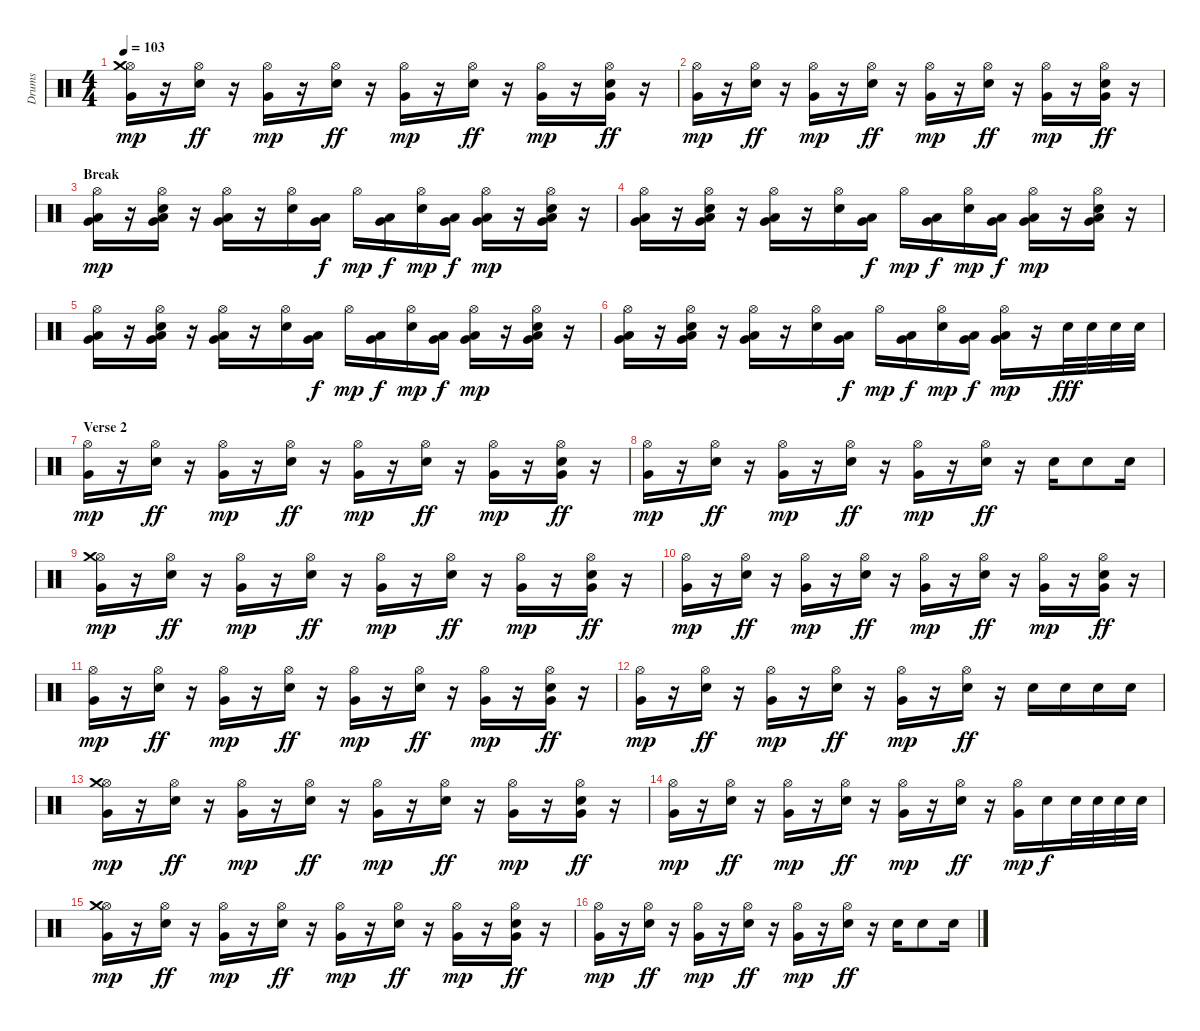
\track ("Drums" "Drums") {instrument percussion}
\staff {score}
\articulation defaults
\ts (4 4)
\tempo 103
\clef neutral
\ks c
("Hi-Hat (open)" "Crash medium (hit)" "Very Low Tom (hit)").16{dy mp} r.16 ("Hi-Hat (open)" "Electric Snare (hit)").16{dy ff} r.16 ("Hi-Hat (open)" "Very Low Tom (hit)").16{dy mp} r.16 ("Hi-Hat (open)" "Electric Snare (hit)").16{dy ff} r.16 ("Hi-Hat (open)" "Very Low Tom (hit)").16{dy mp} r.16 ("Hi-Hat (open)" "Electric Snare (hit)").16{dy ff} r.16 ("Hi-Hat (open)" "Very Low Tom (hit)").16{dy mp} r.16 ("Hi-Hat (open)" "Electric Snare (hit)" "Very Low Tom (hit)").16{dy ff} r.16 |
("Hi-Hat (open)" "Very Low Tom (hit)").16{dy mp} r.16 ("Hi-Hat (open)" "Electric Snare (hit)").16{dy ff} r.16 ("Hi-Hat (open)" "Very Low Tom (hit)").16{dy mp} r.16 ("Hi-Hat (open)" "Electric Snare (hit)").16{dy ff} r.16 ("Hi-Hat (open)" "Very Low Tom (hit)").16{dy mp} r.16 ("Hi-Hat (open)" "Electric Snare (hit)").16{dy ff} r.16 ("Hi-Hat (open)" "Very Low Tom (hit)").16{dy mp} r.16 ("Hi-Hat (open)" "Electric Snare (hit)" "Very Low Tom (hit)").16{dy ff} r.16 |
\section ("" "Break ")
("Hi-Hat (open)" "Low Floor Tom (hit)" "Very Low Tom (hit)").16{dy mp} r.16 ("Hi-Hat (open)" "Electric Snare (hit)" "Low Floor Tom (hit)" "Very Low Tom (hit)").16 r.16 ("Hi-Hat (open)" "Low Floor Tom (hit)" "Very Low Tom (hit)").16 r.16 ("Hi-Hat (open)" "Electric Snare (hit)").16 ("Low Floor Tom (hit)" "Very Low Tom (hit)").16{dy f} "Hi-Hat (open)".16{dy mp} ("Low Floor Tom (hit)" "Very Low Tom (hit)").16{dy f} ("Hi-Hat (open)" "Electric Snare (hit)").16{dy mp} ("Low Floor Tom (hit)" "Very Low Tom (hit)").16{dy f} ("Hi-Hat (open)" "Low Floor Tom (hit)" "Very Low Tom (hit)").16{dy mp} r.16 ("Hi-Hat (open)" "Electric Snare (hit)" "Low Floor Tom (hit)" "Very Low Tom (hit)").16 r.16 |
("Hi-Hat (open)" "Low Floor Tom (hit)" "Very Low Tom (hit)").16 r.16 ("Hi-Hat (open)" "Electric Snare (hit)" "Low Floor Tom (hit)" "Very Low Tom (hit)").16 r.16 ("Hi-Hat (open)" "Low Floor Tom (hit)" "Very Low Tom (hit)").16 r.16 ("Hi-Hat (open)" "Electric Snare (hit)").16 ("Low Floor Tom (hit)" "Very Low Tom (hit)").16{dy f} "Hi-Hat (open)".16{dy mp} ("Low Floor Tom (hit)" "Very Low Tom (hit)").16{dy f} ("Hi-Hat (open)" "Electric Snare (hit)").16{dy mp} ("Low Floor Tom (hit)" "Very Low Tom (hit)").16{dy f} ("Hi-Hat (open)" "Low Floor Tom (hit)" "Very Low Tom (hit)").16{dy mp} r.16 ("Hi-Hat (open)" "Electric Snare (hit)" "Low Floor Tom (hit)" "Very Low Tom (hit)").16 r.16 |
("Hi-Hat (open)" "Low Floor Tom (hit)" "Very Low Tom (hit)").16 r.16 ("Hi-Hat (open)" "Electric Snare (hit)" "Low Floor Tom (hit)" "Very Low Tom (hit)").16 r.16 ("Hi-Hat (open)" "Low Floor Tom (hit)" "Very Low Tom (hit)").16 r.16 ("Hi-Hat (open)" "Electric Snare (hit)").16 ("Low Floor Tom (hit)" "Very Low Tom (hit)").16{dy f} "Hi-Hat (open)".16{dy mp} ("Low Floor Tom (hit)" "Very Low Tom (hit)").16{dy f} ("Hi-Hat (open)" "Electric Snare (hit)").16{dy mp} ("Low Floor Tom (hit)" "Very Low Tom (hit)").16{dy f} ("Hi-Hat (open)" "Low Floor Tom (hit)" "Very Low Tom (hit)").16{dy mp} r.16 ("Hi-Hat (open)" "Electric Snare (hit)" "Low Floor Tom (hit)" "Very Low Tom (hit)").16 r.16 |
("Hi-Hat (open)" "Low Floor Tom (hit)" "Very Low Tom (hit)").16 r.16 ("Hi-Hat (open)" "Electric Snare (hit)" "Low Floor Tom (hit)" "Very Low Tom (hit)").16 r.16 ("Hi-Hat (open)" "Low Floor Tom (hit)" "Very Low Tom (hit)").16 r.16 ("Hi-Hat (open)" "Electric Snare (hit)").16 ("Low Floor Tom (hit)" "Very Low Tom (hit)").16{dy f} "Hi-Hat (open)".16{dy mp} ("Low Floor Tom (hit)" "Very Low Tom (hit)").16{dy f} ("Hi-Hat (open)" "Electric Snare (hit)").16{dy mp} ("Low Floor Tom (hit)" "Very Low Tom (hit)").16{dy f} ("Hi-Hat (open)" "Low Floor Tom (hit)" "Very Low Tom (hit)").16{dy mp} r.16 "Electric Snare (hit)".32{dy fff} "Electric Snare (hit)".32 "Electric Snare (hit)".32 "Electric Snare (hit)".32 |
\section ("" "Verse 2")
("Hi-Hat (open)" "Very Low Tom (hit)").16{dy mp} r.16 ("Hi-Hat (open)" "Electric Snare (hit)").16{dy ff} r.16 ("Hi-Hat (open)" "Very Low Tom (hit)").16{dy mp} r.16 ("Hi-Hat (open)" "Electric Snare (hit)").16{dy ff} r.16 ("Hi-Hat (open)" "Very Low Tom (hit)").16{dy mp} r.16 ("Hi-Hat (open)" "Electric Snare (hit)").16{dy ff} r.16 ("Hi-Hat (open)" "Very Low Tom (hit)").16{dy mp} r.16 ("Hi-Hat (open)" "Electric Snare (hit)" "Very Low Tom (hit)").16{dy ff} r.16 |
("Hi-Hat (open)" "Very Low Tom (hit)").16{dy mp} r.16 ("Hi-Hat (open)" "Electric Snare (hit)").16{dy ff} r.16 ("Hi-Hat (open)" "Very Low Tom (hit)").16{dy mp} r.16 ("Hi-Hat (open)" "Electric Snare (hit)").16{dy ff} r.16 ("Hi-Hat (open)" "Very Low Tom (hit)").16{dy mp} r.16 ("Hi-Hat (open)" "Electric Snare (hit)").16{dy ff} r.16 "Electric Snare (hit)".16 "Electric Snare (hit)".8 "Electric Snare (hit)".16 |
("Hi-Hat (open)" "Crash medium (hit)" "Very Low Tom (hit)").16{dy mp} r.16 ("Hi-Hat (open)" "Electric Snare (hit)").16{dy ff} r.16 ("Hi-Hat (open)" "Very Low Tom (hit)").16{dy mp} r.16 ("Hi-Hat (open)" "Electric Snare (hit)").16{dy ff} r.16 ("Hi-Hat (open)" "Very Low Tom (hit)").16{dy mp} r.16 ("Hi-Hat (open)" "Electric Snare (hit)").16{dy ff} r.16 ("Hi-Hat (open)" "Very Low Tom (hit)").16{dy mp} r.16 ("Hi-Hat (open)" "Electric Snare (hit)" "Very Low Tom (hit)").16{dy ff} r.16 |
("Hi-Hat (open)" "Very Low Tom (hit)").16{dy mp} r.16 ("Hi-Hat (open)" "Electric Snare (hit)").16{dy ff} r.16 ("Hi-Hat (open)" "Very Low Tom (hit)").16{dy mp} r.16 ("Hi-Hat (open)" "Electric Snare (hit)").16{dy ff} r.16 ("Hi-Hat (open)" "Very Low Tom (hit)").16{dy mp} r.16 ("Hi-Hat (open)" "Electric Snare (hit)").16{dy ff} r.16 ("Hi-Hat (open)" "Very Low Tom (hit)").16{dy mp} r.16 ("Hi-Hat (open)" "Electric Snare (hit)" "Very Low Tom (hit)").16{dy ff} r.16 |
("Hi-Hat (open)" "Very Low Tom (hit)").16{dy mp} r.16 ("Hi-Hat (open)" "Electric Snare (hit)").16{dy ff} r.16 ("Hi-Hat (open)" "Very Low Tom (hit)").16{dy mp} r.16 ("Hi-Hat (open)" "Electric Snare (hit)").16{dy ff} r.16 ("Hi-Hat (open)" "Very Low Tom (hit)").16{dy mp} r.16 ("Hi-Hat (open)" "Electric Snare (hit)").16{dy ff} r.16 ("Hi-Hat (open)" "Very Low Tom (hit)").16{dy mp} r.16 ("Hi-Hat (open)" "Electric Snare (hit)" "Very Low Tom (hit)").16{dy ff} r.16 |
("Hi-Hat (open)" "Very Low Tom (hit)").16{dy mp} r.16 ("Hi-Hat (open)" "Electric Snare (hit)").16{dy ff} r.16 ("Hi-Hat (open)" "Very Low Tom (hit)").16{dy mp} r.16 ("Hi-Hat (open)" "Electric Snare (hit)").16{dy ff} r.16 ("Hi-Hat (open)" "Very Low Tom (hit)").16{dy mp} r.16 ("Hi-Hat (open)" "Electric Snare (hit)").16{dy ff} r.16 "Electric Snare (hit)".16 "Electric Snare (hit)".16 "Electric Snare (hit)".16 "Electric Snare (hit)".16 |
("Hi-Hat (open)" "Crash medium (hit)" "Very Low Tom (hit)").16{dy mp} r.16 ("Hi-Hat (open)" "Electric Snare (hit)").16{dy ff} r.16 ("Hi-Hat (open)" "Very Low Tom (hit)").16{dy mp} r.16 ("Hi-Hat (open)" "Electric Snare (hit)").16{dy ff} r.16 ("Hi-Hat (open)" "Very Low Tom (hit)").16{dy mp} r.16 ("Hi-Hat (open)" "Electric Snare (hit)").16{dy ff} r.16 ("Hi-Hat (open)" "Very Low Tom (hit)").16{dy mp} r.16 ("Hi-Hat (open)" "Electric Snare (hit)" "Very Low Tom (hit)").16{dy ff} r.16 |
("Hi-Hat (open)" "Very Low Tom (hit)").16{dy mp} r.16 ("Hi-Hat (open)" "Electric Snare (hit)").16{dy ff} r.16 ("Hi-Hat (open)" "Very Low Tom (hit)").16{dy mp} r.16 ("Hi-Hat (open)" "Electric Snare (hit)").16{dy ff} r.16 ("Hi-Hat (open)" "Very Low Tom (hit)").16{dy mp} r.16 ("Hi-Hat (open)" "Electric Snare (hit)").16{dy ff} r.16 ("Hi-Hat (open)" "Very Low Tom (hit)").16{dy mp} "Electric Snare (hit)".16{dy f} "Electric Snare (hit)".32 "Electric Snare (hit)".32 "Electric Snare (hit)".32 "Electric Snare (hit)".32 |
("Hi-Hat (open)" "Crash medium (hit)" "Very Low Tom (hit)").16{dy mp} r.16 ("Hi-Hat (open)" "Electric Snare (hit)").16{dy ff} r.16 ("Hi-Hat (open)" "Very Low Tom (hit)").16{dy mp} r.16 ("Hi-Hat (open)" "Electric Snare (hit)").16{dy ff} r.16 ("Hi-Hat (open)" "Very Low Tom (hit)").16{dy mp} r.16 ("Hi-Hat (open)" "Electric Snare (hit)").16{dy ff} r.16 ("Hi-Hat (open)" "Very Low Tom (hit)").16{dy mp} r.16 ("Hi-Hat (open)" "Electric Snare (hit)" "Very Low Tom (hit)").16{dy ff} r.16 |
("Hi-Hat (open)" "Very Low Tom (hit)").16{dy mp} r.16 ("Hi-Hat (open)" "Electric Snare (hit)").16{dy ff} r.16 ("Hi-Hat (open)" "Very Low Tom (hit)").16{dy mp} r.16 ("Hi-Hat (open)" "Electric Snare (hit)").16{dy ff} r.16 ("Hi-Hat (open)" "Very Low Tom (hit)").16{dy mp} r.16 ("Hi-Hat (open)" "Electric Snare (hit)").16{dy ff} r.16 "Electric Snare (hit)".16 "Electric Snare (hit)".8 "Electric Snare (hit)".16
